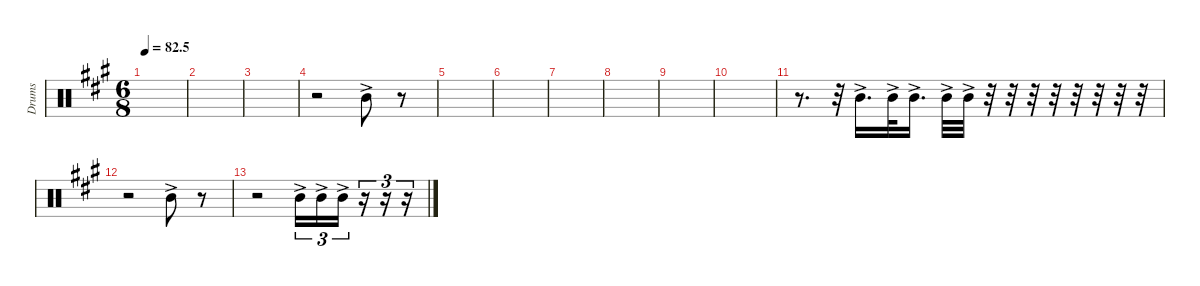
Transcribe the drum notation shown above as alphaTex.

\defaultSystemsLayout 4
\hideDynamics
\bracketExtendMode nobrackets
\otherSystemsTrackNameOrientation horizontal
\track ("Tom 02" "Drums") {instrument percussion}
\staff {score}
\articulation defaults
\ts (6 8)
\tempo
82.5
\accidentals auto
\clef neutral
\ottava regular
\simile none
\scale
0.333333
\ks a
|
\scale
0.333333 |
\scale
0.333333 |
\scale
0.333333 r.2 "Mid Tom (hit)"{ac acc forcenatural}.8 r.8 |
\scale
0.333333 |
\scale
0.333333 |
\scale
0.333333 |
\scale
0.333333 |
\scale
0.333333 |
\scale
0.333333 |
\scale
0.333333 r.8{d} r.32 "Mid Tom (hit)"{ac acc forcenatural}.16{d} "Mid Tom (hit)"{ac acc forcenatural}.32 "Mid Tom (hit)"{ac acc forcenatural}.16{d} "Mid Tom (hit)"{ac acc forcenatural}.32 "Mid Tom (hit)"{ac acc forcenatural}.32 r.32 r.32 r.32 r.32 r.32 r.32 r.32 r.32 |
\scale
0.333333 r.2 "Mid Tom (hit)"{ac acc forcenatural}.8 r.8 |
\scale
0.333333 r.2 "Mid Tom (hit)"{ac acc forcenatural}.16{tu (3 2)} "Mid Tom (hit)"{ac acc forcenatural}.16{tu (3 2)} "Mid Tom (hit)"{ac acc forcenatural}.16{tu (3 2)} r.16{tu (3 2)} r.16{tu (3 2)} r.16{tu (3 2)} |
\scale
0.333333 |
\scale
0.333333 |
\scale
0.333333
